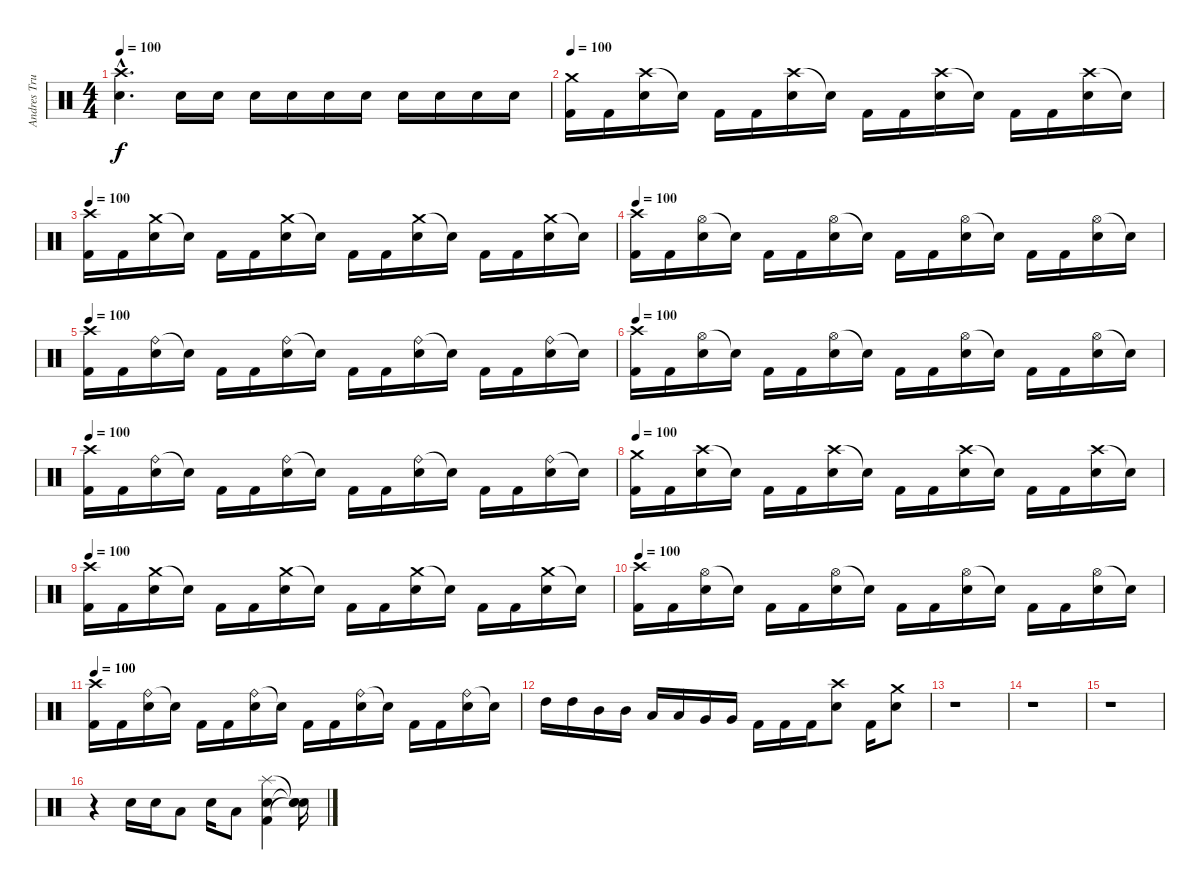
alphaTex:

\track ("Andres Trujillo" "Andres Tru") {instrument percussion}
\staff {score}
\articulation defaults
\ts (4 4)
\tempo 100
\clef neutral
\ks c
("Crash high (hit)"{hac} "Electric Snare (hit)"{hac}).4{d dy f} "Electric Snare (hit)".16 "Electric Snare (hit)".16 "Electric Snare (hit)".16 "Electric Snare (hit)".16 "Electric Snare (hit)".16 "Electric Snare (hit)".16 "Electric Snare (hit)".16 "Electric Snare (hit)".16 "Electric Snare (hit)".16 "Electric Snare (hit)".16 |
\tempo 100
("Crash medium (hit)" "Kick (hit) 2").16 "Kick (hit) 2".16 ("Crash high (hit)" "Electric Snare (hit)").16 "Snare (hit)"{t}.16 "Kick (hit) 2".16 "Kick (hit) 2".16 ("Crash high (hit)" "Electric Snare (hit)").16 "Snare (hit)"{t}.16 "Kick (hit) 2".16 "Kick (hit) 2".16 ("Crash high (hit)" "Electric Snare (hit)").16 "Snare (hit)"{t}.16 "Kick (hit) 2".16 "Kick (hit) 2".16 ("Crash high (hit)" "Electric Snare (hit)").16 "Snare (hit)"{t}.16 |
\tempo 100
("Crash high (hit)" "Kick (hit) 2").16 "Kick (hit) 2".16 ("Crash medium (hit)" "Electric Snare (hit)").16 "Snare (hit)"{t}.16 "Kick (hit) 2".16 "Kick (hit) 2".16 ("Crash medium (hit)" "Electric Snare (hit)").16 "Snare (hit)"{t}.16 "Kick (hit) 2".16 "Kick (hit) 2".16 ("Crash medium (hit)" "Electric Snare (hit)").16 "Snare (hit)"{t}.16 "Kick (hit) 2".16 "Kick (hit) 2".16 ("Crash medium (hit)" "Electric Snare (hit)").16 "Snare (hit)"{t}.16 |
\tempo 100
("Crash high (hit)" "Kick (hit) 2").16 "Kick (hit) 2".16 ("Hi-Hat (open)" "Electric Snare (hit)").16 "Snare (hit)"{t}.16 "Kick (hit) 2".16 "Kick (hit) 2".16 ("Hi-Hat (open)" "Electric Snare (hit)").16 "Snare (hit)"{t}.16 "Kick (hit) 2".16 "Kick (hit) 2".16 ("Hi-Hat (open)" "Electric Snare (hit)").16 "Snare (hit)"{t}.16 "Kick (hit) 2".16 "Kick (hit) 2".16 ("Hi-Hat (open)" "Electric Snare (hit)").16 "Snare (hit)"{t}.16 |
\tempo 100
("Crash high (hit)" "Kick (hit) 2").16 "Kick (hit) 2".16 ("Ride (bell)" "Electric Snare (hit)").16 "Snare (hit)"{t}.16 "Kick (hit) 2".16 "Kick (hit) 2".16 ("Ride (bell)" "Electric Snare (hit)").16 "Snare (hit)"{t}.16 "Kick (hit) 2".16 "Kick (hit) 2".16 ("Ride (bell)" "Electric Snare (hit)").16 "Snare (hit)"{t}.16 "Kick (hit) 2".16 "Kick (hit) 2".16 ("Ride (bell)" "Electric Snare (hit)").16 "Snare (hit)"{t}.16 |
\tempo 100
("Crash high (hit)" "Kick (hit) 2").16 "Kick (hit) 2".16 ("Hi-Hat (open)" "Electric Snare (hit)").16 "Snare (hit)"{t}.16 "Kick (hit) 2".16 "Kick (hit) 2".16 ("Hi-Hat (open)" "Electric Snare (hit)").16 "Snare (hit)"{t}.16 "Kick (hit) 2".16 "Kick (hit) 2".16 ("Hi-Hat (open)" "Electric Snare (hit)").16 "Snare (hit)"{t}.16 "Kick (hit) 2".16 "Kick (hit) 2".16 ("Hi-Hat (open)" "Electric Snare (hit)").16 "Snare (hit)"{t}.16 |
\tempo 100
("Crash high (hit)" "Kick (hit) 2").16 "Kick (hit) 2".16 ("Ride (bell)" "Electric Snare (hit)").16 "Snare (hit)"{t}.16 "Kick (hit) 2".16 "Kick (hit) 2".16 ("Ride (bell)" "Electric Snare (hit)").16 "Snare (hit)"{t}.16 "Kick (hit) 2".16 "Kick (hit) 2".16 ("Ride (bell)" "Electric Snare (hit)").16 "Snare (hit)"{t}.16 "Kick (hit) 2".16 "Kick (hit) 2".16 ("Ride (bell)" "Electric Snare (hit)").16 "Snare (hit)"{t}.16 |
\tempo 100
("Crash medium (hit)" "Kick (hit) 2").16 "Kick (hit) 2".16 ("Crash high (hit)" "Electric Snare (hit)").16 "Snare (hit)"{t}.16 "Kick (hit) 2".16 "Kick (hit) 2".16 ("Crash high (hit)" "Electric Snare (hit)").16 "Snare (hit)"{t}.16 "Kick (hit) 2".16 "Kick (hit) 2".16 ("Crash high (hit)" "Electric Snare (hit)").16 "Snare (hit)"{t}.16 "Kick (hit) 2".16 "Kick (hit) 2".16 ("Crash high (hit)" "Electric Snare (hit)").16 "Snare (hit)"{t}.16 |
\tempo 100
("Crash high (hit)" "Kick (hit) 2").16 "Kick (hit) 2".16 ("Crash medium (hit)" "Electric Snare (hit)").16 "Snare (hit)"{t}.16 "Kick (hit) 2".16 "Kick (hit) 2".16 ("Crash medium (hit)" "Electric Snare (hit)").16 "Snare (hit)"{t}.16 "Kick (hit) 2".16 "Kick (hit) 2".16 ("Crash medium (hit)" "Electric Snare (hit)").16 "Snare (hit)"{t}.16 "Kick (hit) 2".16 "Kick (hit) 2".16 ("Crash medium (hit)" "Electric Snare (hit)").16 "Snare (hit)"{t}.16 |
\tempo 100
("Crash high (hit)" "Kick (hit) 2").16 "Kick (hit) 2".16 ("Hi-Hat (open)" "Electric Snare (hit)").16 "Snare (hit)"{t}.16 "Kick (hit) 2".16 "Kick (hit) 2".16 ("Hi-Hat (open)" "Electric Snare (hit)").16 "Snare (hit)"{t}.16 "Kick (hit) 2".16 "Kick (hit) 2".16 ("Hi-Hat (open)" "Electric Snare (hit)").16 "Snare (hit)"{t}.16 "Kick (hit) 2".16 "Kick (hit) 2".16 ("Hi-Hat (open)" "Electric Snare (hit)").16 "Snare (hit)"{t}.16 |
\tempo 100
("Crash high (hit)" "Kick (hit) 2").16 "Kick (hit) 2".16 ("Ride (bell)" "Electric Snare (hit)").16 "Snare (hit)"{t}.16 "Kick (hit) 2".16 "Kick (hit) 2".16 ("Ride (bell)" "Electric Snare (hit)").16 "Snare (hit)"{t}.16 "Kick (hit) 2".16 "Kick (hit) 2".16 ("Ride (bell)" "Electric Snare (hit)").16 "Snare (hit)"{t}.16 "Kick (hit) 2".16 "Kick (hit) 2".16 ("Ride (bell)" "Electric Snare (hit)").16 "Snare (hit)"{t}.16 |
"High Tom (hit)".16 "High Tom (hit)".16 "Mid Tom (hit)".16 "Mid Tom (hit)".16 "Low Tom (hit)".16 "Low Tom (hit)".16 "Very Low Tom (hit)".16 "Very Low Tom (hit)".16 "Kick (hit) 2".16 "Kick (hit) 2".16 "Kick (hit) 2".16 ("Crash high (hit)" "Electric Snare (hit)").8 "Kick (hit) 2".16 ("Crash medium (hit)" "Electric Snare (hit)").8 |
r.1 |
r.1 |
r.1 |
r.4 "Electric Snare (hit)".16 "Electric Snare (hit)".16 "Low Tom (hit)".8 "Electric Snare (hit)".16 "Low Tom (hit)".8 ("Splash (hit)" "Electric Snare (hit)" "Kick (hit) 2").4 ("Snare (hit)"{t} "Snare (hit)"{t} "Snare (hit)"{t}).16
